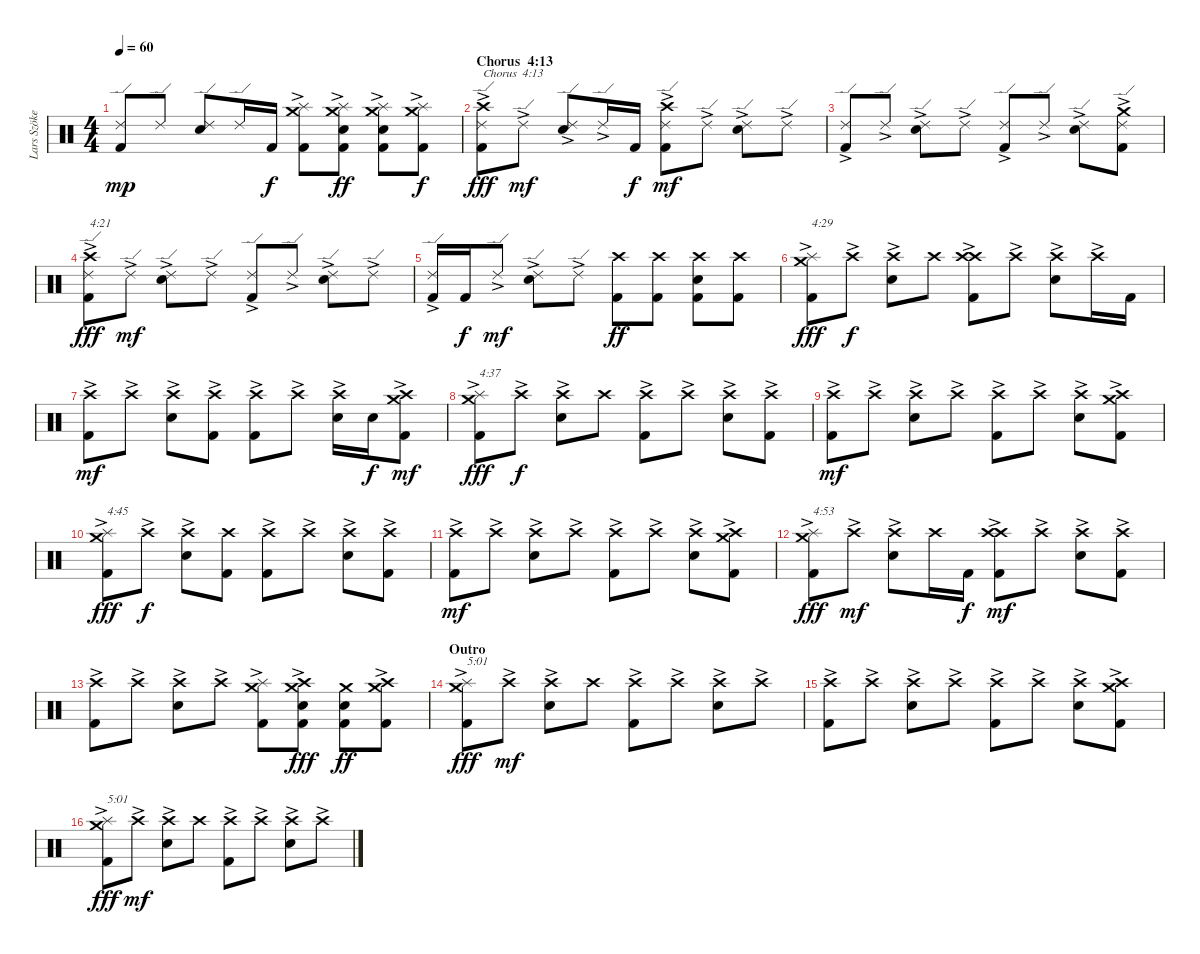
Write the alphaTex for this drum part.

\track ("Lars Szöke (Drums)" "Lars Szöke") {instrument percussion}
\staff {score}
\articulation defaults
\ts (4 4)
\tempo 60
\clef neutral
\ks c
("Kick (hit) 2" "Ride (edge) 2").8{dy mp} "Ride (edge) 2".8 ("Snare (hit) 2" "Ride (edge) 2").8 "Ride (edge) 2".16 "Kick (hit) 2".16{dy f} ("Kick (hit) 2" "Splash (hit)"{ac} "Crash medium (hit)"{ac}).8 ("Kick (hit) 2" "Snare (hit) 2" "Splash (hit)"{ac} "Crash medium (hit)"{ac}).8{dy ff} ("Kick (hit) 2" "Snare (hit) 2" "Splash (hit)"{ac} "Crash medium (hit)"{ac}).8 ("Kick (hit) 2" "Splash (hit)"{ac} "Crash medium (hit)"{ac}).8{dy f} |
\section ("" "Chorus  4:13")
("Kick (hit) 2" "Ride (edge) 2"{ac} "Crash high (hit)"{ac}).8{txt "Chorus  4:13" dy fff} "Ride (edge) 2"{ac}.8{dy mf} ("Snare (hit) 2" "Ride (edge) 2"{ac}).8 "Ride (edge) 2"{ac}.16 "Kick (hit) 2".16{dy f} ("Kick (hit) 2" "Ride (edge) 2"{ac} "Crash high (hit)").8{dy mf} "Ride (edge) 2"{ac}.8 ("Snare (hit) 2" "Ride (edge) 2"{ac}).8 "Ride (edge) 2"{ac}.8 |
("Kick (hit) 2" "Ride (edge) 2"{ac}).8 "Ride (edge) 2"{ac}.8 ("Snare (hit) 2" "Ride (edge) 2"{ac}).8 "Ride (edge) 2"{ac}.8 ("Kick (hit) 2" "Ride (edge) 2"{ac}).8 "Ride (edge) 2"{ac}.8 ("Snare (hit) 2" "Ride (edge) 2"{ac}).8 ("Kick (hit) 2" "Ride (edge) 2"{ac} "Crash medium (hit)").8 |
("Kick (hit) 2" "Ride (edge) 2"{ac} "Crash high (hit)"{ac}).8{txt "4:21" dy fff} "Ride (edge) 2"{ac}.8{dy mf} ("Snare (hit) 2" "Ride (edge) 2"{ac}).8 "Ride (edge) 2"{ac}.8 ("Kick (hit) 2" "Ride (edge) 2"{ac}).8 "Ride (edge) 2"{ac}.8 ("Snare (hit) 2" "Ride (edge) 2"{ac}).8 "Ride (edge) 2"{ac}.8 |
("Kick (hit) 2" "Ride (edge) 2"{ac}).16 "Kick (hit) 2".16{dy f} "Ride (edge) 2"{ac}.8{dy mf} ("Snare (hit) 2" "Ride (edge) 2"{ac}).8 "Ride (edge) 2"{ac}.8 ("Kick (hit) 2" "Crash high (hit)").8{dy ff} ("Kick (hit) 2" "Crash high (hit)").8 ("Kick (hit) 2" "Snare (hit) 2" "Crash high (hit)").8 ("Kick (hit) 2" "Crash high (hit)").8 |
("Kick (hit) 2" "Splash (hit)"{ac} "Crash medium (hit)"{ac}).8{txt "4:29" dy fff} "Crash high (hit)"{ac}.8{dy f} ("Snare (hit) 2" "Crash high (hit)"{ac}).8 "Crash high (hit)".8 ("Kick (hit) 2" "Crash high (hit)"{ac} "Crash high (hit)").8 "Crash high (hit)"{ac}.8 ("Snare (hit) 2" "Crash high (hit)"{ac}).8 "Crash high (hit)"{ac}.16 "Kick (hit) 2".16 |
("Kick (hit) 2" "Crash high (hit)"{ac}).8{dy mf} "Crash high (hit)"{ac}.8 ("Snare (hit) 2" "Crash high (hit)"{ac}).8 ("Kick (hit) 2" "Crash high (hit)"{ac}).8 ("Kick (hit) 2" "Crash high (hit)"{ac}).8 "Crash high (hit)"{ac}.8 ("Snare (hit) 2" "Crash high (hit)"{ac}).16 "Snare (hit) 2".16{dy f} ("Kick (hit) 2" "Crash high (hit)" "Crash medium (hit)"{ac}).8{dy mf} |
("Kick (hit) 2" "Splash (hit)"{ac} "Crash medium (hit)"{ac}).8{txt "4:37" dy fff} "Crash high (hit)"{ac}.8{dy f} ("Snare (hit) 2" "Crash high (hit)"{ac}).8 "Crash high (hit)".8 ("Kick (hit) 2" "Crash high (hit)"{ac}).8 "Crash high (hit)"{ac}.8 ("Snare (hit) 2" "Crash high (hit)"{ac}).8 ("Kick (hit) 2" "Crash high (hit)"{ac}).8 |
("Kick (hit) 2" "Crash high (hit)"{ac}).8{dy mf} "Crash high (hit)"{ac}.8 ("Snare (hit) 2" "Crash high (hit)"{ac}).8 "Crash high (hit)"{ac}.8 ("Kick (hit) 2" "Crash high (hit)"{ac}).8 "Crash high (hit)"{ac}.8 ("Snare (hit) 2" "Crash high (hit)"{ac}).8 ("Kick (hit) 2" "Crash high (hit)" "Crash medium (hit)"{ac}).8 |
("Kick (hit) 2" "Splash (hit)"{ac} "Crash medium (hit)"{ac}).8{txt "4:45" dy fff} "Crash high (hit)"{ac}.8{dy f} ("Snare (hit) 2" "Crash high (hit)"{ac}).8 ("Kick (hit) 2" "Crash high (hit)").8 ("Kick (hit) 2" "Crash high (hit)"{ac}).8 "Crash high (hit)"{ac}.8 ("Snare (hit) 2" "Crash high (hit)"{ac}).8 ("Kick (hit) 2" "Crash high (hit)"{ac}).8 |
("Kick (hit) 2" "Crash high (hit)"{ac}).8{dy mf} "Crash high (hit)"{ac}.8 ("Snare (hit) 2" "Crash high (hit)"{ac}).8 "Crash high (hit)"{ac}.8 ("Kick (hit) 2" "Crash high (hit)"{ac}).8 "Crash high (hit)"{ac}.8 ("Snare (hit) 2" "Crash high (hit)"{ac}).8 ("Kick (hit) 2" "Crash high (hit)" "Crash medium (hit)"{ac}).8 |
("Kick (hit) 2" "Splash (hit)"{ac} "Crash medium (hit)"{ac}).8{txt "4:53" dy fff} "Crash high (hit)"{ac}.8{dy mf} ("Snare (hit) 2" "Crash high (hit)"{ac}).8 "Crash high (hit)".16 "Kick (hit) 2".16{dy f} ("Kick (hit) 2" "Crash high (hit)"{ac} "Crash high (hit)").8{dy mf} "Crash high (hit)"{ac}.8 ("Snare (hit) 2" "Crash high (hit)"{ac}).8 ("Kick (hit) 2" "Crash high (hit)"{ac}).8 |
("Kick (hit) 2" "Crash high (hit)"{ac}).8 "Crash high (hit)"{ac}.8 ("Snare (hit) 2" "Crash high (hit)"{ac}).8 "Crash high (hit)"{ac}.8 ("Kick (hit) 2" "Splash (hit)"{ac} "Crash medium (hit)").8 ("Kick (hit) 2" "Snare (hit) 2" "Crash high (hit)" "Crash medium (hit)"{ac}).8{dy fff} ("Kick (hit) 2" "Snare (hit) 2" "Crash medium (hit)").8{dy ff} ("Kick (hit) 2" "Crash high (hit)" "Crash medium (hit)"{ac}).8 |
\section ("" "Outro")
("Kick (hit) 2" "Splash (hit)"{ac} "Crash medium (hit)"{ac}).8{txt "5:01" dy fff volume 1} "Crash high (hit)"{ac}.8{dy mf} ("Snare (hit) 2" "Crash high (hit)"{ac}).8 "Crash high (hit)".8 ("Kick (hit) 2" "Crash high (hit)"{ac}).8 "Crash high (hit)"{ac}.8 ("Snare (hit) 2" "Crash high (hit)"{ac}).8 "Crash high (hit)"{ac}.8 |
("Kick (hit) 2" "Crash high (hit)"{ac}).8 "Crash high (hit)"{ac}.8 ("Snare (hit) 2" "Crash high (hit)"{ac}).8 "Crash high (hit)"{ac}.8 ("Kick (hit) 2" "Crash high (hit)"{ac}).8 "Crash high (hit)"{ac}.8 ("Snare (hit) 2" "Crash high (hit)"{ac}).8 ("Kick (hit) 2" "Crash high (hit)" "Crash medium (hit)"{ac}).8 |
("Kick (hit) 2" "Splash (hit)"{ac} "Crash medium (hit)"{ac}).8{txt "5:01" dy fff} "Crash high (hit)"{ac}.8{dy mf} ("Snare (hit) 2" "Crash high (hit)"{ac}).8 "Crash high (hit)".8 ("Kick (hit) 2" "Crash high (hit)"{ac}).8 "Crash high (hit)"{ac}.8 ("Snare (hit) 2" "Crash high (hit)"{ac}).8 "Crash high (hit)"{ac}.8
